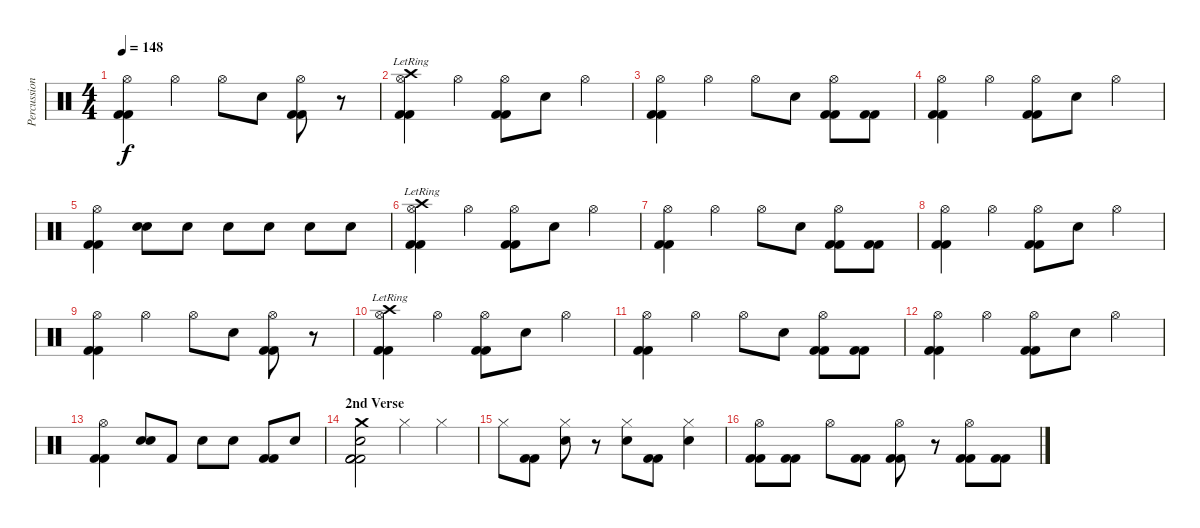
\track ("Percussion" "Percussion") {instrument percussion}
\staff {score}
\articulation defaults
\ts (4 4)
\tempo 148
\clef neutral
\ks c
("Hi-Hat (open)" "Kick (hit) 2" "Kick (hit) 2").4{dy f} "Hi-Hat (open)".4 "Hi-Hat (open)".8 "Snare (hit) 2".8 ("Hi-Hat (open)" "Kick (hit) 2" "Kick (hit) 2").8 r.8 |
("Crash high (hit)"{lr} "Hi-Hat (open)" "Kick (hit) 2" "Kick (hit) 2").4 "Hi-Hat (open)".4 ("Hi-Hat (open)" "Kick (hit) 2" "Kick (hit) 2").8 "Snare (hit) 2".8 "Hi-Hat (open)".4 |
("Hi-Hat (open)" "Kick (hit) 2" "Kick (hit) 2").4 "Hi-Hat (open)".4 "Hi-Hat (open)".8 "Snare (hit) 2".8 ("Hi-Hat (open)" "Kick (hit) 2" "Kick (hit) 2").8 ("Kick (hit) 2" "Kick (hit) 2").8 |
("Hi-Hat (open)" "Kick (hit) 2" "Kick (hit) 2").4 "Hi-Hat (open)".4 ("Hi-Hat (open)" "Kick (hit) 2" "Kick (hit) 2").8 "Snare (hit) 2".8 "Hi-Hat (open)".4 |
("Hi-Hat (open)" "Kick (hit) 2" "Kick (hit) 2").4 ("Electric Snare (hit)" "Electric Snare (hit)").8{bd 240} "Electric Snare (hit)".8 "Electric Snare (hit)".8 "Electric Snare (hit)".8 "Electric Snare (hit)".8 "Electric Snare (hit)".8 |
("Crash high (hit)"{lr} "Hi-Hat (open)" "Kick (hit) 2" "Kick (hit) 2").4 "Hi-Hat (open)".4 ("Hi-Hat (open)" "Kick (hit) 2" "Kick (hit) 2").8 "Snare (hit) 2".8 "Hi-Hat (open)".4 |
("Hi-Hat (open)" "Kick (hit) 2" "Kick (hit) 2").4 "Hi-Hat (open)".4 "Hi-Hat (open)".8 "Snare (hit) 2".8 ("Hi-Hat (open)" "Kick (hit) 2" "Kick (hit) 2").8 ("Kick (hit) 2" "Kick (hit) 2").8 |
("Hi-Hat (open)" "Kick (hit) 2" "Kick (hit) 2").4 "Hi-Hat (open)".4 ("Hi-Hat (open)" "Kick (hit) 2" "Kick (hit) 2").8 "Snare (hit) 2".8 "Hi-Hat (open)".4 |
("Hi-Hat (open)" "Kick (hit) 2" "Kick (hit) 2").4 "Hi-Hat (open)".4 "Hi-Hat (open)".8 "Snare (hit) 2".8 ("Hi-Hat (open)" "Kick (hit) 2" "Kick (hit) 2").8 r.8 |
("Crash high (hit)"{lr} "Hi-Hat (open)" "Kick (hit) 2" "Kick (hit) 2").4 "Hi-Hat (open)".4 ("Hi-Hat (open)" "Kick (hit) 2" "Kick (hit) 2").8 "Snare (hit) 2".8 "Hi-Hat (open)".4 |
("Hi-Hat (open)" "Kick (hit) 2" "Kick (hit) 2").4 "Hi-Hat (open)".4 "Hi-Hat (open)".8 "Snare (hit) 2".8 ("Hi-Hat (open)" "Kick (hit) 2" "Kick (hit) 2").8 ("Kick (hit) 2" "Kick (hit) 2").8 |
("Hi-Hat (open)" "Kick (hit) 2" "Kick (hit) 2").4 "Hi-Hat (open)".4 ("Hi-Hat (open)" "Kick (hit) 2" "Kick (hit) 2").8 "Snare (hit) 2".8 "Hi-Hat (open)".4 |
("Hi-Hat (open)" "Kick (hit) 2" "Kick (hit) 2").4 ("Electric Snare (hit)" "Electric Snare (hit)").8{bd 240} "Kick (hit) 2".8 "Electric Snare (hit)".8 "Electric Snare (hit)".8 ("Kick (hit) 2" "Kick (hit) 2").8 "Electric Snare (hit)".8 |
\section ("" "2nd Verse")
("Crash medium (hit)" "Snare (hit) 2" "Kick (hit) 2" "Kick (hit) 2" "Kick (hit) 2").2 "Hi-Hat (closed)".4 "Hi-Hat (closed)".4 |
"Hi-Hat (closed)".8 ("Kick (hit) 2" "Kick (hit) 2").8 ("Hi-Hat (closed)" "Electric Snare (hit)").8 r.8 ("Hi-Hat (closed)" "Electric Snare (hit)").8 ("Kick (hit) 2" "Kick (hit) 2").8 ("Hi-Hat (closed)" "Electric Snare (hit)").4 |
("Hi-Hat (open)" "Kick (hit) 2" "Kick (hit) 2").8 ("Kick (hit) 2" "Kick (hit) 2").8 "Hi-Hat (open)".8 ("Kick (hit) 2" "Kick (hit) 2").8 ("Hi-Hat (open)" "Kick (hit) 2" "Kick (hit) 2").8 r.8 ("Hi-Hat (open)" "Kick (hit) 2" "Kick (hit) 2").8 ("Kick (hit) 2" "Kick (hit) 2").8
